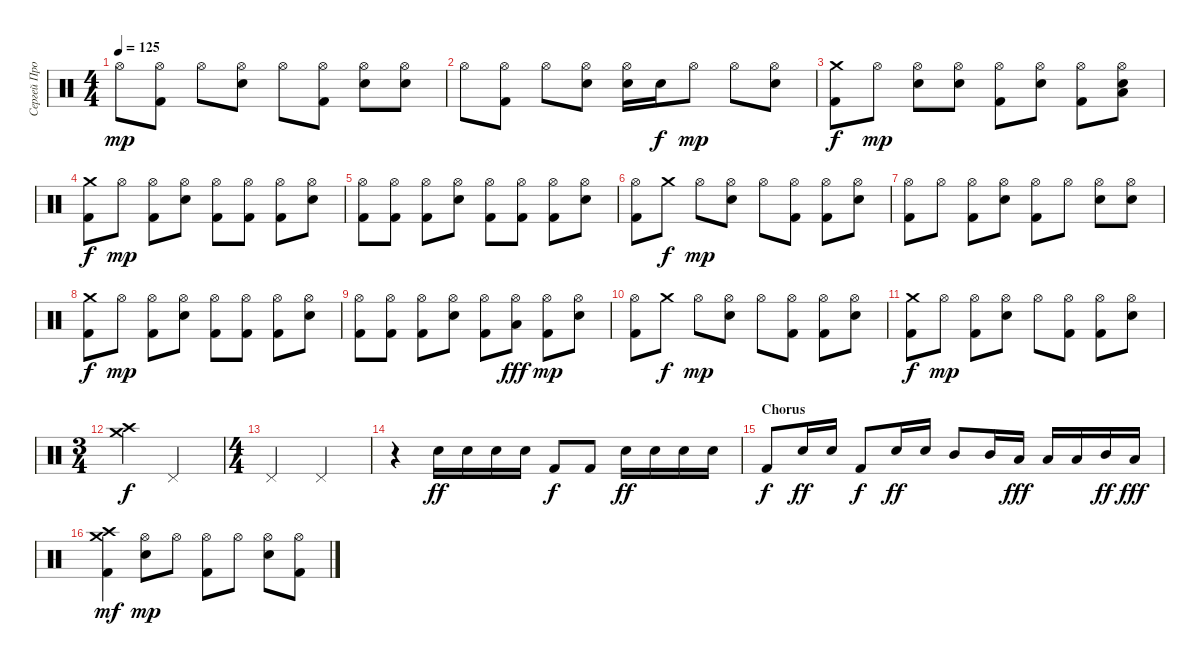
\track ("Сергей Прокофьев (Percussion)" "Сергей Про") {instrument percussion}
\staff {score}
\articulation defaults
\ts (4 4)
\tempo 125
\clef neutral
\ks c "Hi-Hat (open)".8{dy mp}
("Hi-Hat (open)" "Kick (hit) 2").8 "Hi-Hat (open)".8 ("Hi-Hat (open)" "Snare (hit) 2").8 "Hi-Hat (open)".8 ("Hi-Hat (open)" "Kick (hit) 2").8 ("Hi-Hat (open)" "Snare (hit) 2").8 ("Hi-Hat (open)" "Snare (hit) 2").8 |
"Hi-Hat (open)".8 ("Hi-Hat (open)" "Kick (hit) 2").8 "Hi-Hat (open)".8 ("Hi-Hat (open)" "Snare (hit) 2").8 ("Hi-Hat (open)" "Snare (hit) 2").16 "Snare (hit) 2".16{dy f} "Hi-Hat (open)".8{dy mp} "Hi-Hat (open)".8 ("Hi-Hat (open)" "Snare (hit) 2").8 |
("Crash medium (hit)" "Kick (hit) 2").8{dy f} "Hi-Hat (open)".8{dy mp} ("Hi-Hat (open)" "Snare (hit) 2").8 ("Hi-Hat (open)" "Snare (hit) 2").8 ("Hi-Hat (open)" "Kick (hit) 2").8 ("Hi-Hat (open)" "Snare (hit) 2").8 ("Hi-Hat (open)" "Kick (hit) 2").8 ("Hi-Hat (open)" "Snare (hit) 2" "Low Floor Tom (hit)").8 |
("Crash medium (hit)" "Kick (hit) 2").8{dy f} "Hi-Hat (open)".8{dy mp} ("Hi-Hat (open)" "Kick (hit) 2").8 ("Hi-Hat (open)" "Snare (hit) 2").8 ("Hi-Hat (open)" "Kick (hit) 2").8 ("Hi-Hat (open)" "Kick (hit) 2").8 ("Hi-Hat (open)" "Kick (hit) 2").8 ("Hi-Hat (open)" "Snare (hit) 2").8 |
("Hi-Hat (open)" "Kick (hit) 2").8 ("Hi-Hat (open)" "Kick (hit) 2").8 ("Hi-Hat (open)" "Kick (hit) 2").8 ("Hi-Hat (open)" "Snare (hit) 2").8 ("Hi-Hat (open)" "Kick (hit) 2").8 ("Hi-Hat (open)" "Kick (hit) 2").8 ("Hi-Hat (open)" "Kick (hit) 2").8 ("Hi-Hat (open)" "Snare (hit) 2").8 |
("Hi-Hat (open)" "Kick (hit) 2").8 "Crash medium (hit)".8{dy f} "Hi-Hat (open)".8{dy mp} ("Hi-Hat (open)" "Snare (hit) 2").8 "Hi-Hat (open)".8 ("Hi-Hat (open)" "Kick (hit) 2").8 ("Hi-Hat (open)" "Kick (hit) 2").8 ("Hi-Hat (open)" "Snare (hit) 2").8 |
("Hi-Hat (open)" "Kick (hit) 2").8 "Hi-Hat (open)".8 ("Hi-Hat (open)" "Kick (hit) 2").8 ("Hi-Hat (open)" "Snare (hit) 2").8 ("Hi-Hat (open)" "Kick (hit) 2").8 "Hi-Hat (open)".8 ("Hi-Hat (open)" "Snare (hit) 2").8 ("Hi-Hat (open)" "Snare (hit) 2").8 |
("Crash medium (hit)" "Kick (hit) 2").8{dy f} "Hi-Hat (open)".8{dy mp} ("Hi-Hat (open)" "Kick (hit) 2").8 ("Hi-Hat (open)" "Snare (hit) 2").8 ("Hi-Hat (open)" "Kick (hit) 2").8 ("Hi-Hat (open)" "Kick (hit) 2").8 ("Hi-Hat (open)" "Kick (hit) 2").8 ("Hi-Hat (open)" "Snare (hit) 2").8 |
("Hi-Hat (open)" "Kick (hit) 2").8 ("Hi-Hat (open)" "Kick (hit) 2").8 ("Hi-Hat (open)" "Kick (hit) 2").8 ("Hi-Hat (open)" "Snare (hit) 2").8 ("Hi-Hat (open)" "Kick (hit) 2").8 ("Hi-Hat (open)" "Low Floor Tom (hit)").8{dy fff} ("Hi-Hat (open)" "Kick (hit) 2").8{dy mp} ("Hi-Hat (open)" "Snare (hit) 2").8 |
("Hi-Hat (open)" "Kick (hit) 2").8 "Crash medium (hit)".8{dy f} "Hi-Hat (open)".8{dy mp} ("Hi-Hat (open)" "Snare (hit) 2").8 "Hi-Hat (open)".8 ("Hi-Hat (open)" "Kick (hit) 2").8 ("Hi-Hat (open)" "Kick (hit) 2").8 ("Hi-Hat (open)" "Snare (hit) 2").8 |
("Crash medium (hit)" "Kick (hit) 2").8{dy f} "Hi-Hat (open)".8{dy mp} ("Hi-Hat (open)" "Kick (hit) 2").8 ("Hi-Hat (open)" "Snare (hit) 2").8 "Hi-Hat (open)".8 ("Hi-Hat (open)" "Kick (hit) 2").8 ("Hi-Hat (open)" "Kick (hit) 2").8 ("Hi-Hat (open)" "Snare (hit) 2").8 |
\ts (3 4)
("Crash medium (hit)" "Crash high (hit)").4{dy f} "Pedal Hi-Hat (hit)".2 |
\ts (4 4)
"Pedal Hi-Hat (hit)".2 "Pedal Hi-Hat (hit)".2 |
r.4 "Snare (hit) 2".16{dy ff} "Snare (hit) 2".16 "Snare (hit) 2".16 "Snare (hit) 2".16 "Kick (hit) 2".8{dy f} "Kick (hit) 2".8 "Snare (hit) 2".16{dy ff} "Snare (hit) 2".16 "Snare (hit) 2".16 "Snare (hit) 2".16 |
\section ("" "Chorus")
"Kick (hit) 2".8{dy f} "Snare (hit) 2".16{dy ff} "Snare (hit) 2".16 "Kick (hit) 2".8{dy f} "Snare (hit) 2".16{dy ff} "Snare (hit) 2".16 "Mid Tom (hit)".8 "Mid Tom (hit)".16 "Low Floor Tom (hit)".16{dy fff} "Low Floor Tom (hit)".16 "Low Floor Tom (hit)".16 "Mid Tom (hit)".16{dy ff} "Low Floor Tom (hit)".16{dy fff} |
("Crash high (hit)" "Crash medium (hit)" "Kick (hit) 2").4{dy mf} ("Hi-Hat (open)" "Snare (hit) 2").8{dy mp} "Hi-Hat (open)".8 ("Hi-Hat (open)" "Kick (hit) 2").8 "Hi-Hat (open)".8 ("Hi-Hat (open)" "Snare (hit) 2").8 ("Hi-Hat (open)" "Kick (hit) 2").8
